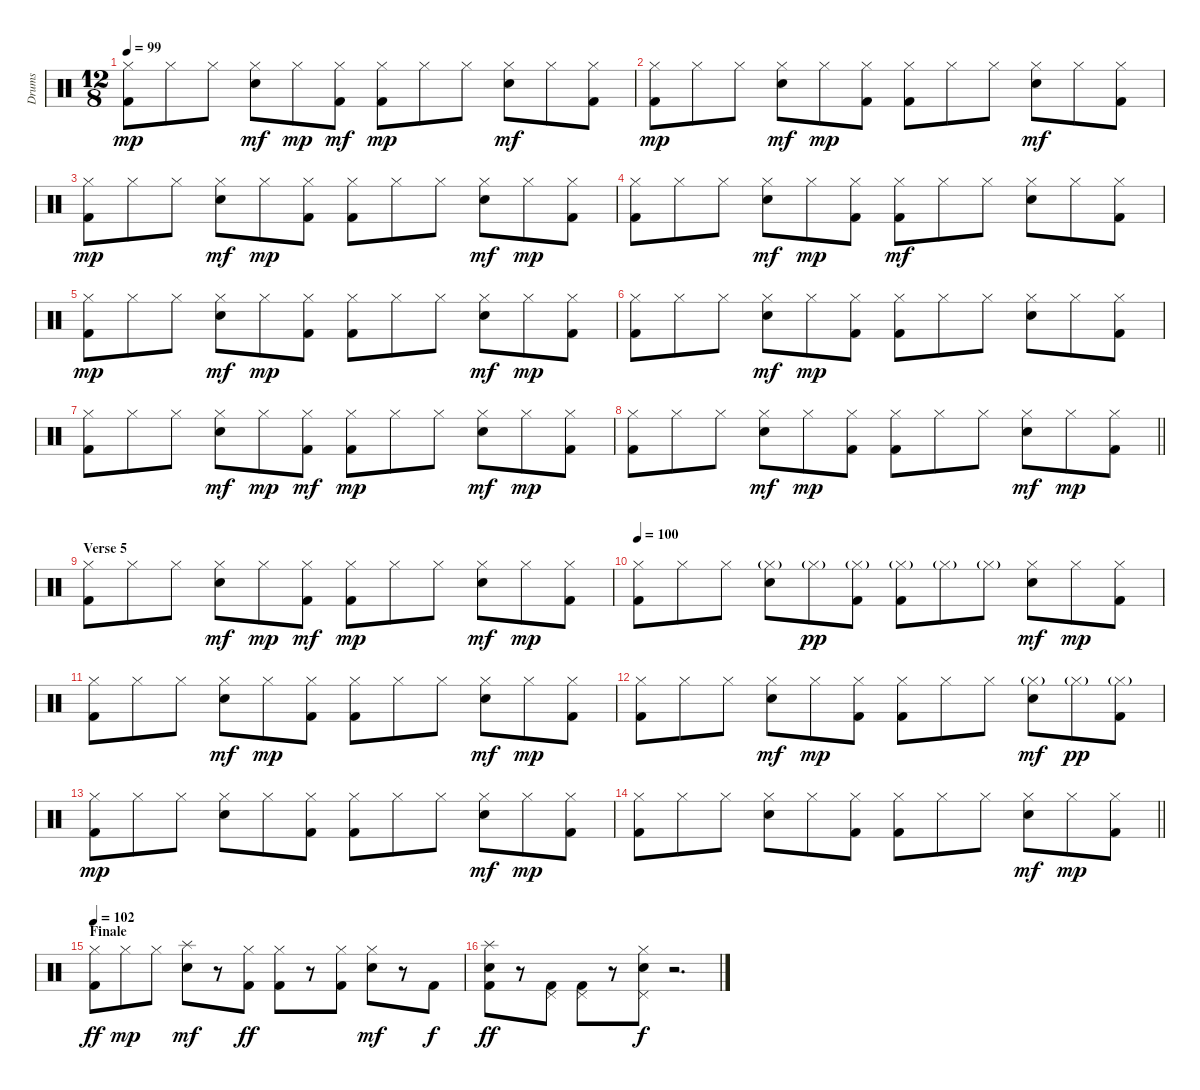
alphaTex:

\track ("Drums" "Drums") {instrument percussion}
\staff {score}
\articulation defaults
\ts (12 8)
\tempo 99
\clef neutral
\ks c
("Hi-Hat (closed)" "Kick (hit) 2").8{dy mp} "Hi-Hat (closed)".8 "Hi-Hat (closed)".8 ("Hi-Hat (closed)" "Snare (hit) 2").8{dy mf} "Hi-Hat (closed)".8{dy mp} ("Hi-Hat (closed)" "Kick (hit) 2").8{dy mf} ("Hi-Hat (closed)" "Kick (hit) 2").8{dy mp} "Hi-Hat (closed)".8 "Hi-Hat (closed)".8 ("Hi-Hat (closed)" "Snare (hit) 2").8{dy mf} "Hi-Hat (closed)".8 ("Hi-Hat (closed)" "Kick (hit) 2").8 |
("Hi-Hat (closed)" "Kick (hit) 2").8{dy mp} "Hi-Hat (closed)".8 "Hi-Hat (closed)".8 ("Hi-Hat (closed)" "Snare (hit) 2").8{dy mf} "Hi-Hat (closed)".8{dy mp} ("Hi-Hat (closed)" "Kick (hit) 2").8 ("Hi-Hat (closed)" "Kick (hit) 2").8 "Hi-Hat (closed)".8 "Hi-Hat (closed)".8 ("Hi-Hat (closed)" "Snare (hit) 2").8{dy mf} "Hi-Hat (closed)".8 ("Hi-Hat (closed)" "Kick (hit) 2").8 |
("Hi-Hat (closed)" "Kick (hit) 2").8{dy mp} "Hi-Hat (closed)".8 "Hi-Hat (closed)".8 ("Hi-Hat (closed)" "Snare (hit) 2").8{dy mf} "Hi-Hat (closed)".8{dy mp} ("Hi-Hat (closed)" "Kick (hit) 2").8 ("Hi-Hat (closed)" "Kick (hit) 2").8 "Hi-Hat (closed)".8 "Hi-Hat (closed)".8 ("Hi-Hat (closed)" "Snare (hit) 2").8{dy mf} "Hi-Hat (closed)".8{dy mp} ("Hi-Hat (closed)" "Kick (hit) 2").8 |
("Hi-Hat (closed)" "Kick (hit) 2").8 "Hi-Hat (closed)".8 "Hi-Hat (closed)".8 ("Hi-Hat (closed)" "Snare (hit) 2").8{dy mf} "Hi-Hat (closed)".8{dy mp} ("Hi-Hat (closed)" "Kick (hit) 2").8 ("Hi-Hat (closed)" "Kick (hit) 2").8{dy mf} "Hi-Hat (closed)".8 "Hi-Hat (closed)".8 ("Hi-Hat (closed)" "Snare (hit) 2").8 "Hi-Hat (closed)".8 ("Hi-Hat (closed)" "Kick (hit) 2").8 |
("Hi-Hat (closed)" "Kick (hit) 2").8{dy mp} "Hi-Hat (closed)".8 "Hi-Hat (closed)".8 ("Hi-Hat (closed)" "Snare (hit) 2").8{dy mf} "Hi-Hat (closed)".8{dy mp} ("Hi-Hat (closed)" "Kick (hit) 2").8 ("Hi-Hat (closed)" "Kick (hit) 2").8 "Hi-Hat (closed)".8 "Hi-Hat (closed)".8 ("Hi-Hat (closed)" "Snare (hit) 2").8{dy mf} "Hi-Hat (closed)".8{dy mp} ("Hi-Hat (closed)" "Kick (hit) 2").8 |
("Hi-Hat (closed)" "Kick (hit) 2").8 "Hi-Hat (closed)".8 "Hi-Hat (closed)".8 ("Hi-Hat (closed)" "Snare (hit) 2").8{dy mf} "Hi-Hat (closed)".8{dy mp} ("Hi-Hat (closed)" "Kick (hit) 2").8 ("Hi-Hat (closed)" "Kick (hit) 2").8 "Hi-Hat (closed)".8 "Hi-Hat (closed)".8 ("Hi-Hat (closed)" "Snare (hit) 2").8 "Hi-Hat (closed)".8 ("Hi-Hat (closed)" "Kick (hit) 2").8 |
("Hi-Hat (closed)" "Kick (hit) 2").8 "Hi-Hat (closed)".8 "Hi-Hat (closed)".8 ("Hi-Hat (closed)" "Snare (hit) 2").8{dy mf} "Hi-Hat (closed)".8{dy mp} ("Hi-Hat (closed)" "Kick (hit) 2").8{dy mf} ("Hi-Hat (closed)" "Kick (hit) 2").8{dy mp} "Hi-Hat (closed)".8 "Hi-Hat (closed)".8 ("Hi-Hat (closed)" "Snare (hit) 2").8{dy mf} "Hi-Hat (closed)".8{dy mp} ("Hi-Hat (closed)" "Kick (hit) 2").8 |
\barLineRight lightlight
("Hi-Hat (closed)" "Kick (hit) 2").8 "Hi-Hat (closed)".8 "Hi-Hat (closed)".8 ("Hi-Hat (closed)" "Snare (hit) 2").8{dy mf} "Hi-Hat (closed)".8{dy mp} ("Hi-Hat (closed)" "Kick (hit) 2").8 ("Hi-Hat (closed)" "Kick (hit) 2").8 "Hi-Hat (closed)".8 "Hi-Hat (closed)".8 ("Hi-Hat (closed)" "Snare (hit) 2").8{dy mf} "Hi-Hat (closed)".8{dy mp} ("Hi-Hat (closed)" "Kick (hit) 2").8 |
\section ("" "Verse 5")
("Hi-Hat (closed)" "Kick (hit) 2").8 "Hi-Hat (closed)".8 "Hi-Hat (closed)".8 ("Hi-Hat (closed)" "Snare (hit) 2").8{dy mf} "Hi-Hat (closed)".8{dy mp} ("Hi-Hat (closed)" "Kick (hit) 2").8{dy mf} ("Hi-Hat (closed)" "Kick (hit) 2").8{dy mp} "Hi-Hat (closed)".8 "Hi-Hat (closed)".8 ("Hi-Hat (closed)" "Snare (hit) 2").8{dy mf} "Hi-Hat (closed)".8{dy mp} ("Hi-Hat (closed)" "Kick (hit) 2").8 |
\tempo 100
("Hi-Hat (closed)" "Kick (hit) 2").8 "Hi-Hat (closed)".8 "Hi-Hat (closed)".8 ("Hi-Hat (closed)"{g} "Snare (hit) 2").8 "Hi-Hat (closed)"{g}.8{dy pp} ("Hi-Hat (closed)"{g} "Kick (hit) 2").8 ("Hi-Hat (closed)"{g} "Kick (hit) 2").8 "Hi-Hat (closed)"{g}.8 "Hi-Hat (closed)"{g}.8 ("Hi-Hat (closed)" "Snare (hit) 2").8{dy mf} "Hi-Hat (closed)".8{dy mp} ("Hi-Hat (closed)" "Kick (hit) 2").8 |
("Hi-Hat (closed)" "Kick (hit) 2").8 "Hi-Hat (closed)".8 "Hi-Hat (closed)".8 ("Hi-Hat (closed)" "Snare (hit) 2").8{dy mf} "Hi-Hat (closed)".8{dy mp} ("Hi-Hat (closed)" "Kick (hit) 2").8 ("Hi-Hat (closed)" "Kick (hit) 2").8 "Hi-Hat (closed)".8 "Hi-Hat (closed)".8 ("Hi-Hat (closed)" "Snare (hit) 2").8{dy mf} "Hi-Hat (closed)".8{dy mp} ("Hi-Hat (closed)" "Kick (hit) 2").8 |
("Hi-Hat (closed)" "Kick (hit) 2").8 "Hi-Hat (closed)".8 "Hi-Hat (closed)".8 ("Hi-Hat (closed)" "Snare (hit) 2").8{dy mf} "Hi-Hat (closed)".8{dy mp} ("Hi-Hat (closed)" "Kick (hit) 2").8 ("Hi-Hat (closed)" "Kick (hit) 2").8 "Hi-Hat (closed)".8 "Hi-Hat (closed)".8 ("Hi-Hat (closed)"{g} "Snare (hit) 2").8{dy mf} "Hi-Hat (closed)"{g}.8{dy pp} ("Hi-Hat (closed)"{g} "Kick (hit) 2").8 |
("Hi-Hat (closed)" "Kick (hit) 2").8{dy mp} "Hi-Hat (closed)".8 "Hi-Hat (closed)".8 ("Hi-Hat (closed)" "Snare (hit) 2").8 "Hi-Hat (closed)".8 ("Hi-Hat (closed)" "Kick (hit) 2").8 ("Hi-Hat (closed)" "Kick (hit) 2").8 "Hi-Hat (closed)".8 "Hi-Hat (closed)".8 ("Hi-Hat (closed)" "Snare (hit) 2").8{dy mf} "Hi-Hat (closed)".8{dy mp} ("Hi-Hat (closed)" "Kick (hit) 2").8 |
\barLineRight lightlight
("Hi-Hat (closed)" "Kick (hit) 2").8 "Hi-Hat (closed)".8 "Hi-Hat (closed)".8 ("Hi-Hat (closed)" "Snare (hit) 2").8 "Hi-Hat (closed)".8 ("Hi-Hat (closed)" "Kick (hit) 2").8 ("Hi-Hat (closed)" "Kick (hit) 2").8 "Hi-Hat (closed)".8 "Hi-Hat (closed)".8 ("Hi-Hat (closed)" "Snare (hit) 2").8{dy mf} "Hi-Hat (closed)".8{dy mp} ("Hi-Hat (closed)" "Kick (hit) 2").8 |
\section ("" "Finale")
\tempo 102
("Hi-Hat (closed)" "Kick (hit) 2").8{dy ff} "Hi-Hat (closed)".8{dy mp} "Hi-Hat (closed)".8 ("Splash (hit)" "Snare (hit) 2").8{dy mf} r.8 ("Hi-Hat (closed)" "Kick (hit) 2").8{dy ff} ("Hi-Hat (closed)" "Kick (hit) 2").8 r.8 ("Hi-Hat (closed)" "Kick (hit) 2").8 ("Hi-Hat (closed)" "Snare (hit) 2").8{dy mf} r.8 "Kick (hit) 2".8{dy f} |
("Splash (hit)" "Snare (hit) 2" "Kick (hit) 2").8{dy ff} r.8 ("Pedal Hi-Hat (hit)" "Kick (hit) 2").8 ("Pedal Hi-Hat (hit)" "Kick (hit) 2").8 r.8 ("Hi-Hat (closed)" "Pedal Hi-Hat (hit)" "Snare (hit) 2").8{dy f} r.2{d}
